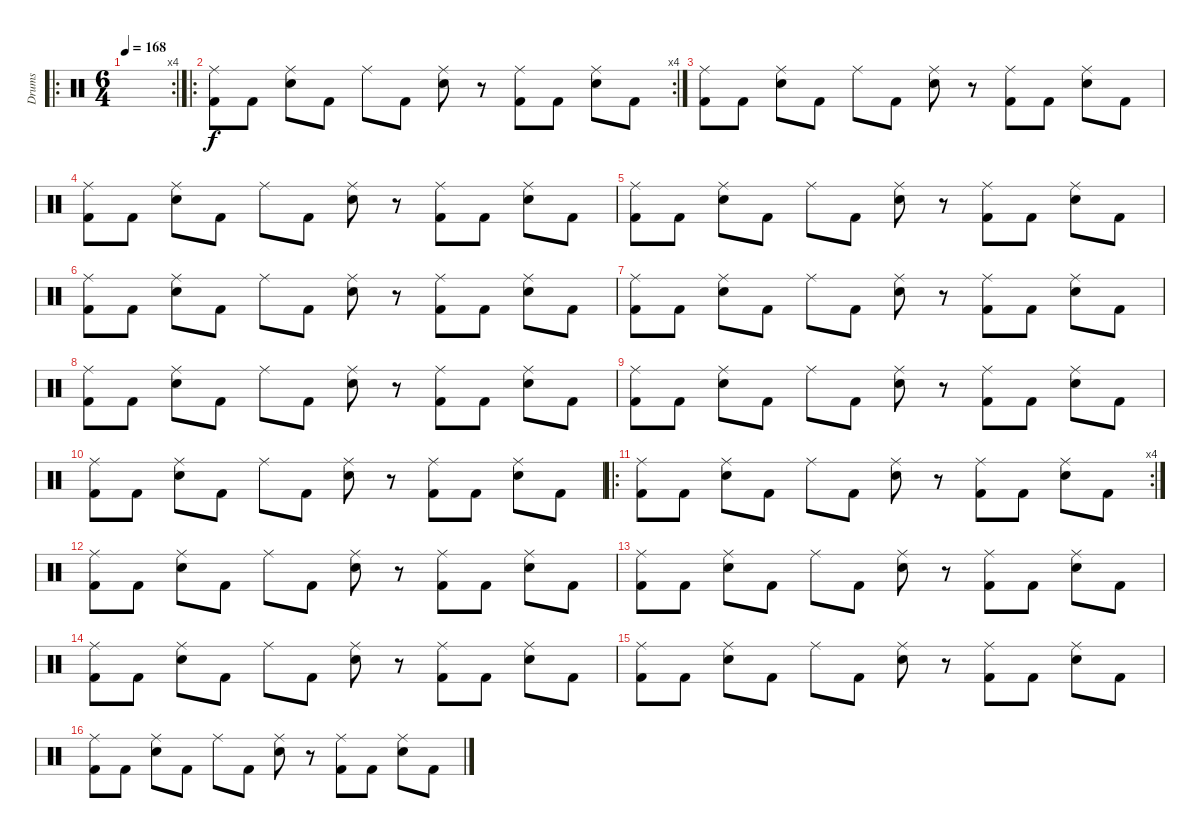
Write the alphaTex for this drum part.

\track ("Drums" "Drums") {instrument percussion}
\staff {score}
\articulation defaults
\ro
\rc 4
\ts (6 4)
\tempo 168
\clef neutral
\ks c
|
\ro
\rc 4
("Ride (middle)" "Kick (hit) 2").8 "Kick (hit) 2".8 ("Ride (middle)" "Snare (hit) 2").8 "Kick (hit) 2".8 "Ride (middle)".8 "Kick (hit) 2".8 ("Ride (middle)" "Snare (hit) 2").8 r.8 ("Ride (middle)" "Kick (hit) 2").8 "Kick (hit) 2".8 ("Ride (middle)" "Snare (hit) 2").8 "Kick (hit) 2".8 |
("Ride (middle)" "Kick (hit) 2").8 "Kick (hit) 2".8 ("Ride (middle)" "Snare (hit) 2").8 "Kick (hit) 2".8 "Ride (middle)".8 "Kick (hit) 2".8 ("Ride (middle)" "Snare (hit) 2").8 r.8 ("Ride (middle)" "Kick (hit) 2").8 "Kick (hit) 2".8 ("Ride (middle)" "Snare (hit) 2").8 "Kick (hit) 2".8 |
("Ride (middle)" "Kick (hit) 2").8 "Kick (hit) 2".8 ("Ride (middle)" "Snare (hit) 2").8 "Kick (hit) 2".8 "Ride (middle)".8 "Kick (hit) 2".8 ("Ride (middle)" "Snare (hit) 2").8 r.8 ("Ride (middle)" "Kick (hit) 2").8 "Kick (hit) 2".8 ("Ride (middle)" "Snare (hit) 2").8 "Kick (hit) 2".8 |
("Ride (middle)" "Kick (hit) 2").8 "Kick (hit) 2".8 ("Ride (middle)" "Snare (hit) 2").8 "Kick (hit) 2".8 "Ride (middle)".8 "Kick (hit) 2".8 ("Ride (middle)" "Snare (hit) 2").8 r.8 ("Ride (middle)" "Kick (hit) 2").8 "Kick (hit) 2".8 ("Ride (middle)" "Snare (hit) 2").8 "Kick (hit) 2".8 |
("Ride (middle)" "Kick (hit) 2").8 "Kick (hit) 2".8 ("Ride (middle)" "Snare (hit) 2").8 "Kick (hit) 2".8 "Ride (middle)".8 "Kick (hit) 2".8 ("Ride (middle)" "Snare (hit) 2").8 r.8 ("Ride (middle)" "Kick (hit) 2").8 "Kick (hit) 2".8 ("Ride (middle)" "Snare (hit) 2").8 "Kick (hit) 2".8 |
("Ride (middle)" "Kick (hit) 2").8 "Kick (hit) 2".8 ("Ride (middle)" "Snare (hit) 2").8 "Kick (hit) 2".8 "Ride (middle)".8 "Kick (hit) 2".8 ("Ride (middle)" "Snare (hit) 2").8 r.8 ("Ride (middle)" "Kick (hit) 2").8 "Kick (hit) 2".8 ("Ride (middle)" "Snare (hit) 2").8 "Kick (hit) 2".8 |
("Ride (middle)" "Kick (hit) 2").8 "Kick (hit) 2".8 ("Ride (middle)" "Snare (hit) 2").8 "Kick (hit) 2".8 "Ride (middle)".8 "Kick (hit) 2".8 ("Ride (middle)" "Snare (hit) 2").8 r.8 ("Ride (middle)" "Kick (hit) 2").8 "Kick (hit) 2".8 ("Ride (middle)" "Snare (hit) 2").8 "Kick (hit) 2".8 |
("Ride (middle)" "Kick (hit) 2").8 "Kick (hit) 2".8 ("Ride (middle)" "Snare (hit) 2").8 "Kick (hit) 2".8 "Ride (middle)".8 "Kick (hit) 2".8 ("Ride (middle)" "Snare (hit) 2").8 r.8 ("Ride (middle)" "Kick (hit) 2").8 "Kick (hit) 2".8 ("Ride (middle)" "Snare (hit) 2").8 "Kick (hit) 2".8 |
("Ride (middle)" "Kick (hit) 2").8 "Kick (hit) 2".8 ("Ride (middle)" "Snare (hit) 2").8 "Kick (hit) 2".8 "Ride (middle)".8 "Kick (hit) 2".8 ("Ride (middle)" "Snare (hit) 2").8 r.8 ("Ride (middle)" "Kick (hit) 2").8 "Kick (hit) 2".8 ("Ride (middle)" "Snare (hit) 2").8 "Kick (hit) 2".8 |
\ro
\rc 4
("Ride (middle)" "Kick (hit) 2").8 "Kick (hit) 2".8 ("Ride (middle)" "Snare (hit) 2").8 "Kick (hit) 2".8 "Ride (middle)".8 "Kick (hit) 2".8 ("Ride (middle)" "Snare (hit) 2").8 r.8 ("Ride (middle)" "Kick (hit) 2").8 "Kick (hit) 2".8 ("Ride (middle)" "Snare (hit) 2").8 "Kick (hit) 2".8 |
("Ride (middle)" "Kick (hit) 2").8 "Kick (hit) 2".8 ("Ride (middle)" "Snare (hit) 2").8 "Kick (hit) 2".8 "Ride (middle)".8 "Kick (hit) 2".8 ("Ride (middle)" "Snare (hit) 2").8 r.8 ("Ride (middle)" "Kick (hit) 2").8 "Kick (hit) 2".8 ("Ride (middle)" "Snare (hit) 2").8 "Kick (hit) 2".8 |
("Ride (middle)" "Kick (hit) 2").8 "Kick (hit) 2".8 ("Ride (middle)" "Snare (hit) 2").8 "Kick (hit) 2".8 "Ride (middle)".8 "Kick (hit) 2".8 ("Ride (middle)" "Snare (hit) 2").8 r.8 ("Ride (middle)" "Kick (hit) 2").8 "Kick (hit) 2".8 ("Ride (middle)" "Snare (hit) 2").8 "Kick (hit) 2".8 |
("Ride (middle)" "Kick (hit) 2").8 "Kick (hit) 2".8 ("Ride (middle)" "Snare (hit) 2").8 "Kick (hit) 2".8 "Ride (middle)".8 "Kick (hit) 2".8 ("Ride (middle)" "Snare (hit) 2").8 r.8 ("Ride (middle)" "Kick (hit) 2").8 "Kick (hit) 2".8 ("Ride (middle)" "Snare (hit) 2").8 "Kick (hit) 2".8 |
("Ride (middle)" "Kick (hit) 2").8 "Kick (hit) 2".8 ("Ride (middle)" "Snare (hit) 2").8 "Kick (hit) 2".8 "Ride (middle)".8 "Kick (hit) 2".8 ("Ride (middle)" "Snare (hit) 2").8 r.8 ("Ride (middle)" "Kick (hit) 2").8 "Kick (hit) 2".8 ("Ride (middle)" "Snare (hit) 2").8 "Kick (hit) 2".8 |
("Ride (middle)" "Kick (hit) 2").8 "Kick (hit) 2".8 ("Ride (middle)" "Snare (hit) 2").8 "Kick (hit) 2".8 "Ride (middle)".8 "Kick (hit) 2".8 ("Ride (middle)" "Snare (hit) 2").8 r.8 ("Ride (middle)" "Kick (hit) 2").8 "Kick (hit) 2".8 ("Ride (middle)" "Snare (hit) 2").8 "Kick (hit) 2".8
